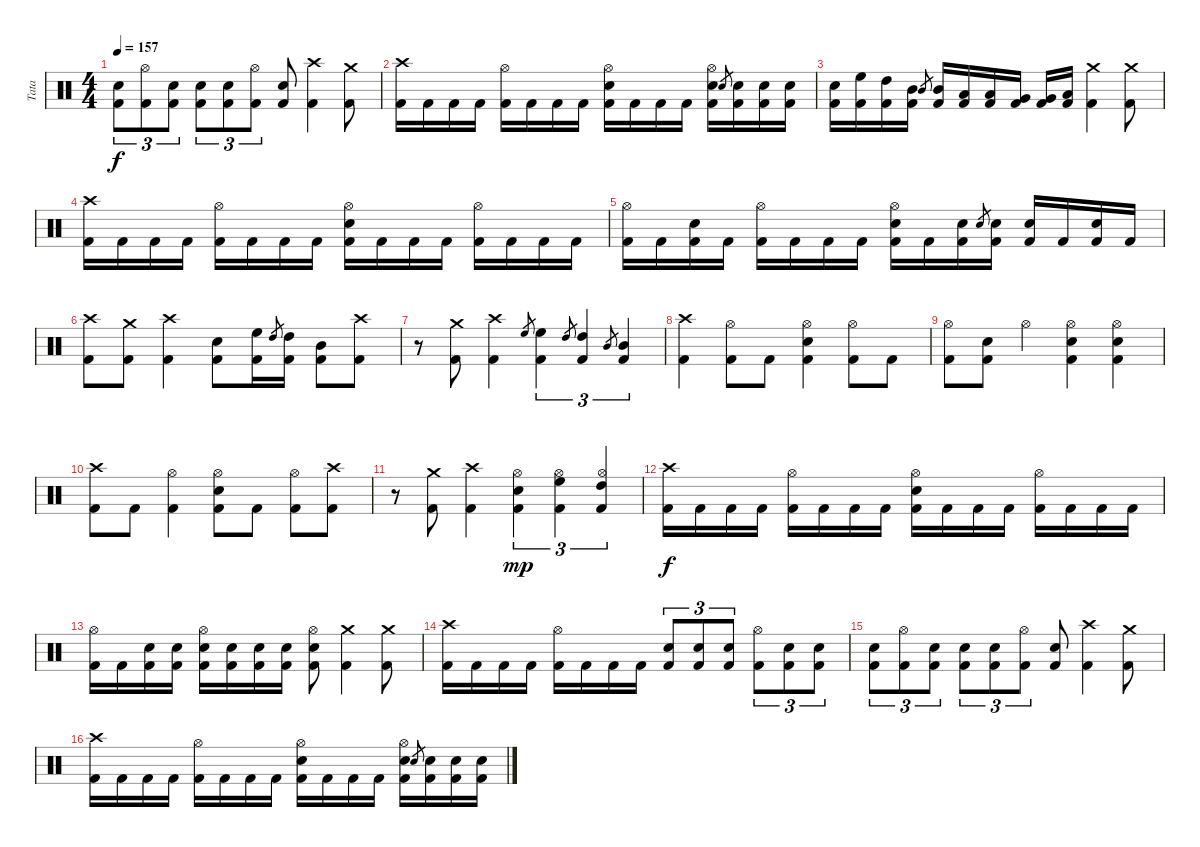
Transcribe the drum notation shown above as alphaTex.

\track ("Tata" "Tata") {instrument percussion}
\staff {score}
\articulation defaults
\ts (4 4)
\tempo 157
\clef neutral
\ks c
("Kick (hit) 2" "Electric Snare (hit)").8{tu (3 2) dy f} ("Kick (hit) 2" "Hi-Hat (open)").8{tu (3 2)} ("Kick (hit) 2" "Electric Snare (hit)").8{tu (3 2)} ("Kick (hit) 2" "Electric Snare (hit)").8{tu (3 2)} ("Kick (hit) 2" "Electric Snare (hit)").8{tu (3 2)} ("Kick (hit) 2" "Hi-Hat (open)").8{tu (3 2)} ("Kick (hit) 2" "Electric Snare (hit)").8 ("Kick (hit) 2" "Crash high (hit)").4 ("Kick (hit) 2" "Crash medium (hit)").8 |
("Kick (hit) 2" "Crash high (hit)").16 "Kick (hit) 2".16 "Kick (hit) 2".16 "Kick (hit) 2".16 ("Kick (hit) 2" "Hi-Hat (open)").16 "Kick (hit) 2".16 "Kick (hit) 2".16 "Kick (hit) 2".16 ("Kick (hit) 2" "Electric Snare (hit)" "Hi-Hat (open)").16 "Kick (hit) 2".16 "Kick (hit) 2".16 "Kick (hit) 2".16 ("Kick (hit) 2" "Electric Snare (hit)" "Hi-Hat (open)").16 "Electric Snare (hit)".8{gr} ("Kick (hit) 2" "Electric Snare (hit)").16 ("Kick (hit) 2" "Electric Snare (hit)").16 ("Kick (hit) 2" "Electric Snare (hit)").16 |
("Kick (hit) 2" "Electric Snare (hit)").16 ("Kick (hit) 2" "High Floor Tom (hit)").16 ("Kick (hit) 2" "High Tom (hit)").16 ("Kick (hit) 2" "Mid Tom (hit)").16 "Mid Tom (hit)".8{gr} ("Kick (hit) 2" "Mid Tom (hit)").16 ("Kick (hit) 2" "Low Tom (hit)").16 ("Kick (hit) 2" "Low Tom (hit)").16 ("Kick (hit) 2" "Very Low Tom (hit)").16 ("Kick (hit) 2" "Very Low Tom (hit)").16 ("Kick (hit) 2" "Low Floor Tom (hit)").16 ("Kick (hit) 2" "Crash medium (hit)").4 ("Kick (hit) 2" "Crash medium (hit)").8 |
("Kick (hit) 2" "Crash high (hit)").16 "Kick (hit) 2".16 "Kick (hit) 2".16 "Kick (hit) 2".16 ("Kick (hit) 2" "Hi-Hat (open)").16 "Kick (hit) 2".16 "Kick (hit) 2".16 "Kick (hit) 2".16 ("Kick (hit) 2" "Electric Snare (hit)" "Hi-Hat (open)").16 "Kick (hit) 2".16 "Kick (hit) 2".16 "Kick (hit) 2".16 ("Kick (hit) 2" "Hi-Hat (open)").16 "Kick (hit) 2".16 "Kick (hit) 2".16 "Kick (hit) 2".16 |
("Kick (hit) 2" "Hi-Hat (open)").16 "Kick (hit) 2".16 ("Kick (hit) 2" "Electric Snare (hit)").16 "Kick (hit) 2".16 ("Kick (hit) 2" "Hi-Hat (open)").16 "Kick (hit) 2".16 "Kick (hit) 2".16 "Kick (hit) 2".16 ("Kick (hit) 2" "Electric Snare (hit)" "Hi-Hat (open)").16 "Kick (hit) 2".16 ("Kick (hit) 2" "Electric Snare (hit)").16 "Electric Snare (hit)".8{gr} ("Kick (hit) 2" "Electric Snare (hit)").16 ("Kick (hit) 2" "Electric Snare (hit)").16 "Kick (hit) 2".16 ("Kick (hit) 2" "Electric Snare (hit)").16 "Kick (hit) 2".16 |
("Kick (hit) 2" "Crash high (hit)").8 ("Kick (hit) 2" "Crash medium (hit)").8 ("Kick (hit) 2" "Crash high (hit)").4 ("Kick (hit) 2" "Electric Snare (hit)").8 ("Kick (hit) 2" "High Floor Tom (hit)").16 "High Tom (hit)".8{gr} ("Kick (hit) 2" "High Tom (hit)").16 ("Kick (hit) 2" "Mid Tom (hit)").8 ("Kick (hit) 2" "Crash high (hit)").8 |
r.8 ("Kick (hit) 2" "Crash medium (hit)").8 ("Kick (hit) 2" "Crash high (hit)").4 "High Floor Tom (hit)".8{gr} ("Kick (hit) 2" "High Floor Tom (hit)").4{tu (3 2)} "High Tom (hit)".8{gr} ("Kick (hit) 2" "High Tom (hit)").4{tu (3 2)} "Mid Tom (hit)".8{gr} ("Kick (hit) 2" "Mid Tom (hit)").4{tu (3 2)} |
("Kick (hit) 2" "Crash high (hit)").4 ("Kick (hit) 2" "Hi-Hat (open)").8 "Kick (hit) 2".8 ("Kick (hit) 2" "Electric Snare (hit)" "Hi-Hat (open)").4 ("Kick (hit) 2" "Hi-Hat (open)").8 "Kick (hit) 2".8 |
("Kick (hit) 2" "Hi-Hat (open)").8 ("Kick (hit) 2" "Electric Snare (hit)").8 "Hi-Hat (open)".4 ("Kick (hit) 2" "Electric Snare (hit)" "Hi-Hat (open)").4 ("Kick (hit) 2" "Electric Snare (hit)" "Hi-Hat (open)").4 |
("Kick (hit) 2" "Crash high (hit)").8 "Kick (hit) 2".8 ("Kick (hit) 2" "Hi-Hat (open)").4 ("Kick (hit) 2" "Electric Snare (hit)" "Hi-Hat (open)").8 "Kick (hit) 2".8 ("Kick (hit) 2" "Hi-Hat (open)").8 ("Kick (hit) 2" "Crash high (hit)").8 |
r.8 ("Kick (hit) 2" "Crash medium (hit)").8 ("Kick (hit) 2" "Crash high (hit)").4 ("Kick (hit) 2" "Electric Snare (hit)" "Hi-Hat (open)").4{tu (3 2) dy mp} ("Kick (hit) 2" "High Floor Tom (hit)" "Hi-Hat (open)").4{tu (3 2)} ("Kick (hit) 2" "High Tom (hit)" "Hi-Hat (open)").4{tu (3 2)} |
("Kick (hit) 2" "Crash high (hit)").16{dy f} "Kick (hit) 2".16 "Kick (hit) 2".16 "Kick (hit) 2".16 ("Kick (hit) 2" "Hi-Hat (open)").16 "Kick (hit) 2".16 "Kick (hit) 2".16 "Kick (hit) 2".16 ("Kick (hit) 2" "Electric Snare (hit)" "Hi-Hat (open)").16 "Kick (hit) 2".16 "Kick (hit) 2".16 "Kick (hit) 2".16 ("Kick (hit) 2" "Hi-Hat (open)").16 "Kick (hit) 2".16 "Kick (hit) 2".16 "Kick (hit) 2".16 |
("Kick (hit) 2" "Hi-Hat (open)").16 "Kick (hit) 2".16 ("Kick (hit) 2" "Electric Snare (hit)").16 ("Kick (hit) 2" "Electric Snare (hit)").16 ("Kick (hit) 2" "Electric Snare (hit)" "Hi-Hat (open)").16 ("Kick (hit) 2" "Electric Snare (hit)").16 ("Kick (hit) 2" "Electric Snare (hit)").16 ("Kick (hit) 2" "Electric Snare (hit)").16 ("Kick (hit) 2" "Electric Snare (hit)" "Hi-Hat (open)").8 ("Kick (hit) 2" "Crash medium (hit)").4 ("Kick (hit) 2" "Crash medium (hit)").8 |
("Kick (hit) 2" "Crash high (hit)").16 "Kick (hit) 2".16 "Kick (hit) 2".16 "Kick (hit) 2".16 ("Kick (hit) 2" "Hi-Hat (open)").16 "Kick (hit) 2".16 "Kick (hit) 2".16 "Kick (hit) 2".16 ("Kick (hit) 2" "Electric Snare (hit)").8{tu (3 2)} ("Kick (hit) 2" "Electric Snare (hit)").8{tu (3 2)} ("Kick (hit) 2" "Electric Snare (hit)").8{tu (3 2)} ("Kick (hit) 2" "Hi-Hat (open)").8{tu (3 2)} ("Kick (hit) 2" "Electric Snare (hit)").8{tu (3 2)} ("Kick (hit) 2" "Electric Snare (hit)").8{tu (3 2)} |
("Kick (hit) 2" "Electric Snare (hit)").8{tu (3 2)} ("Kick (hit) 2" "Hi-Hat (open)").8{tu (3 2)} ("Kick (hit) 2" "Electric Snare (hit)").8{tu (3 2)} ("Kick (hit) 2" "Electric Snare (hit)").8{tu (3 2)} ("Kick (hit) 2" "Electric Snare (hit)").8{tu (3 2)} ("Kick (hit) 2" "Hi-Hat (open)").8{tu (3 2)} ("Kick (hit) 2" "Electric Snare (hit)").8 ("Kick (hit) 2" "Crash high (hit)").4 ("Kick (hit) 2" "Crash medium (hit)").8 |
("Kick (hit) 2" "Crash high (hit)").16 "Kick (hit) 2".16 "Kick (hit) 2".16 "Kick (hit) 2".16 ("Kick (hit) 2" "Hi-Hat (open)").16 "Kick (hit) 2".16 "Kick (hit) 2".16 "Kick (hit) 2".16 ("Kick (hit) 2" "Electric Snare (hit)" "Hi-Hat (open)").16 "Kick (hit) 2".16 "Kick (hit) 2".16 "Kick (hit) 2".16 ("Kick (hit) 2" "Electric Snare (hit)" "Hi-Hat (open)").16 "Electric Snare (hit)".8{gr} ("Kick (hit) 2" "Electric Snare (hit)").16 ("Kick (hit) 2" "Electric Snare (hit)").16 ("Kick (hit) 2" "Electric Snare (hit)").16
